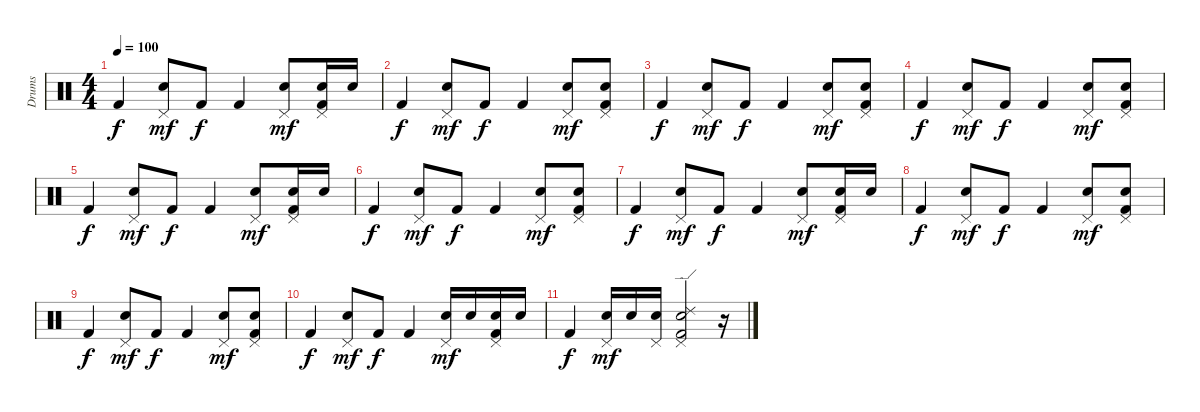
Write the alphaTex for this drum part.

\track ("Drums" "Drums") {instrument percussion}
\staff {score}
\articulation defaults
\ts (4 4)
\tempo 100
\clef neutral
\ks c "Kick (hit) 2".4{dy f}
("Pedal Hi-Hat (hit)" "Electric Snare (hit)").8{dy mf} "Kick (hit) 2".8{dy f} "Kick (hit) 2".4 ("Pedal Hi-Hat (hit)" "Electric Snare (hit)").8{dy mf} ("Pedal Hi-Hat (hit)" "Electric Snare (hit)" "Kick (hit) 2").16 "Electric Snare (hit)".16 |
"Kick (hit) 2".4{dy f} ("Pedal Hi-Hat (hit)" "Electric Snare (hit)").8{dy mf} "Kick (hit) 2".8{dy f} "Kick (hit) 2".4 ("Pedal Hi-Hat (hit)" "Electric Snare (hit)").8{dy mf} ("Pedal Hi-Hat (hit)" "Electric Snare (hit)" "Kick (hit) 2").8 |
"Kick (hit) 2".4{dy f} ("Pedal Hi-Hat (hit)" "Electric Snare (hit)").8{dy mf} "Kick (hit) 2".8{dy f} "Kick (hit) 2".4 ("Pedal Hi-Hat (hit)" "Electric Snare (hit)").8{dy mf} ("Pedal Hi-Hat (hit)" "Electric Snare (hit)" "Kick (hit) 2").8 |
"Kick (hit) 2".4{dy f} ("Pedal Hi-Hat (hit)" "Electric Snare (hit)").8{dy mf} "Kick (hit) 2".8{dy f} "Kick (hit) 2".4 ("Pedal Hi-Hat (hit)" "Electric Snare (hit)").8{dy mf} ("Pedal Hi-Hat (hit)" "Electric Snare (hit)" "Kick (hit) 2").8 |
"Kick (hit) 2".4{dy f} ("Pedal Hi-Hat (hit)" "Electric Snare (hit)").8{dy mf} "Kick (hit) 2".8{dy f} "Kick (hit) 2".4 ("Pedal Hi-Hat (hit)" "Electric Snare (hit)").8{dy mf} ("Pedal Hi-Hat (hit)" "Electric Snare (hit)" "Kick (hit) 2").16 "Electric Snare (hit)".16 |
"Kick (hit) 2".4{dy f} ("Pedal Hi-Hat (hit)" "Electric Snare (hit)").8{dy mf} "Kick (hit) 2".8{dy f} "Kick (hit) 2".4 ("Pedal Hi-Hat (hit)" "Electric Snare (hit)").8{dy mf} ("Pedal Hi-Hat (hit)" "Electric Snare (hit)" "Kick (hit) 2").8 |
"Kick (hit) 2".4{dy f} ("Pedal Hi-Hat (hit)" "Electric Snare (hit)").8{dy mf} "Kick (hit) 2".8{dy f} "Kick (hit) 2".4 ("Pedal Hi-Hat (hit)" "Electric Snare (hit)").8{dy mf} ("Pedal Hi-Hat (hit)" "Electric Snare (hit)" "Kick (hit) 2").16 "Electric Snare (hit)".16 |
"Kick (hit) 2".4{dy f} ("Pedal Hi-Hat (hit)" "Electric Snare (hit)").8{dy mf} "Kick (hit) 2".8{dy f} "Kick (hit) 2".4 ("Pedal Hi-Hat (hit)" "Electric Snare (hit)").8{dy mf} ("Pedal Hi-Hat (hit)" "Electric Snare (hit)" "Kick (hit) 2").8 |
"Kick (hit) 2".4{dy f} ("Pedal Hi-Hat (hit)" "Electric Snare (hit)").8{dy mf} "Kick (hit) 2".8{dy f} "Kick (hit) 2".4 ("Pedal Hi-Hat (hit)" "Electric Snare (hit)").8{dy mf} ("Pedal Hi-Hat (hit)" "Electric Snare (hit)" "Kick (hit) 2").8 |
"Kick (hit) 2".4{dy f} ("Pedal Hi-Hat (hit)" "Electric Snare (hit)").8{dy mf} "Kick (hit) 2".8{dy f} "Kick (hit) 2".4 ("Pedal Hi-Hat (hit)" "Electric Snare (hit)").16{dy mf} "Electric Snare (hit)".16 ("Pedal Hi-Hat (hit)" "Electric Snare (hit)" "Kick (hit) 2").16 "Electric Snare (hit)".16 |
"Kick (hit) 2".4{dy f} ("Pedal Hi-Hat (hit)" "Electric Snare (hit)").16{dy mf} "Electric Snare (hit)".16 ("Pedal Hi-Hat (hit)" "Electric Snare (hit)").16 ("Ride (edge) 2" "Pedal Hi-Hat (hit)" "Electric Snare (hit)" "Kick (hit) 2").2 r.16
